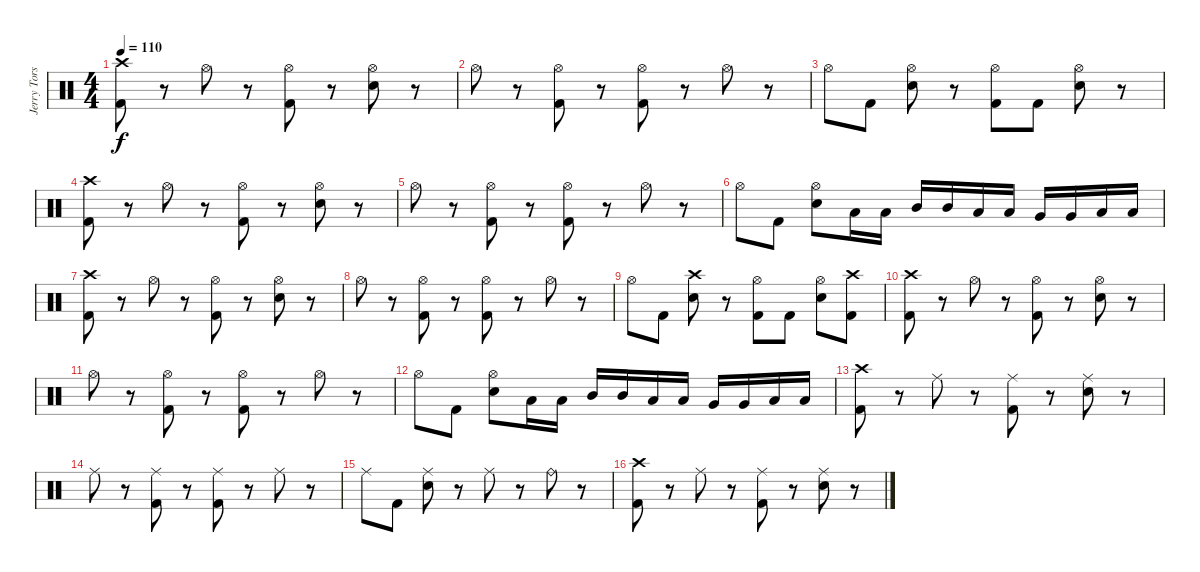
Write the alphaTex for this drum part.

\track ("Jerry Torstensson" "Jerry Tors") {instrument percussion}
\staff {score}
\articulation defaults
\ts (4 4)
\tempo 110
\clef neutral
\ks c
("Crash high (hit)" "Kick (hit) 2").8{dy f} r.8 "Hi-Hat (open)".8 r.8 ("Hi-Hat (open)" "Kick (hit) 2").8 r.8 ("Hi-Hat (open)" "Electric Snare (hit)").8 r.8 |
"Hi-Hat (open)".8 r.8 ("Hi-Hat (open)" "Kick (hit) 2").8 r.8 ("Hi-Hat (open)" "Kick (hit) 2").8 r.8 "Hi-Hat (open)".8 r.8 |
"Hi-Hat (open)".8 "Kick (hit) 2".8 ("Hi-Hat (open)" "Electric Snare (hit)").8 r.8 ("Hi-Hat (open)" "Kick (hit) 2").8 "Kick (hit) 2".8 ("Hi-Hat (open)" "Electric Snare (hit)").8 r.8 |
("Crash high (hit)" "Kick (hit) 2").8 r.8 "Hi-Hat (open)".8 r.8 ("Hi-Hat (open)" "Kick (hit) 2").8 r.8 ("Hi-Hat (open)" "Electric Snare (hit)").8 r.8 |
"Hi-Hat (open)".8 r.8 ("Hi-Hat (open)" "Kick (hit) 2").8 r.8 ("Hi-Hat (open)" "Kick (hit) 2").8 r.8 "Hi-Hat (open)".8 r.8 |
"Hi-Hat (open)".8 "Kick (hit) 2".8 ("Hi-Hat (open)" "Electric Snare (hit)").8 "Low Tom (hit)".16 "Low Tom (hit)".16 "Mid Tom (hit)".16 "Mid Tom (hit)".16 "Low Tom (hit)".16 "Low Tom (hit)".16 "Very Low Tom (hit)".16 "Very Low Tom (hit)".16 "Low Floor Tom (hit)".16 "Low Floor Tom (hit)".16 |
("Crash high (hit)" "Kick (hit) 2").8 r.8 "Hi-Hat (open)".8 r.8 ("Hi-Hat (open)" "Kick (hit) 2").8 r.8 ("Hi-Hat (open)" "Electric Snare (hit)").8 r.8 |
"Hi-Hat (open)".8 r.8 ("Hi-Hat (open)" "Kick (hit) 2").8 r.8 ("Hi-Hat (open)" "Kick (hit) 2").8 r.8 "Hi-Hat (open)".8 r.8 |
"Hi-Hat (open)".8 "Kick (hit) 2".8 ("Crash high (hit)" "Electric Snare (hit)").8 r.8 ("Hi-Hat (open)" "Kick (hit) 2").8 "Kick (hit) 2".8 ("Hi-Hat (open)" "Electric Snare (hit)").8 ("Crash high (hit)" "Kick (hit) 2").8 |
("Crash high (hit)" "Kick (hit) 2").8 r.8 "Hi-Hat (open)".8 r.8 ("Hi-Hat (open)" "Kick (hit) 2").8 r.8 ("Hi-Hat (open)" "Electric Snare (hit)").8 r.8 |
"Hi-Hat (open)".8 r.8 ("Hi-Hat (open)" "Kick (hit) 2").8 r.8 ("Hi-Hat (open)" "Kick (hit) 2").8 r.8 "Hi-Hat (open)".8 r.8 |
"Hi-Hat (open)".8 "Kick (hit) 2".8 ("Hi-Hat (open)" "Electric Snare (hit)").8 "Low Tom (hit)".16 "Low Tom (hit)".16 "Mid Tom (hit)".16 "Mid Tom (hit)".16 "Low Tom (hit)".16 "Low Tom (hit)".16 "Very Low Tom (hit)".16 "Very Low Tom (hit)".16 "Low Floor Tom (hit)".16 "Low Floor Tom (hit)".16 |
("Crash high (hit)" "Kick (hit) 2").8 r.8 "Ride (middle)".8 r.8 ("Ride (middle)" "Kick (hit) 2").8 r.8 ("Ride (middle)" "Electric Snare (hit)").8 r.8 |
"Ride (middle)".8 r.8 ("Ride (middle)" "Kick (hit) 2").8 r.8 ("Ride (middle)" "Kick (hit) 2").8 r.8 "Ride (middle)".8 r.8 |
"Ride (middle)".8 "Kick (hit) 2".8 ("Ride (middle)" "Electric Snare (hit)").8 r.8 "Ride (middle)".8 r.8 "Ride (bell)".8 r.8 |
("Crash high (hit)" "Kick (hit) 2").8 r.8 "Ride (middle)".8 r.8 ("Ride (middle)" "Kick (hit) 2").8 r.8 ("Ride (middle)" "Electric Snare (hit)").8 r.8
